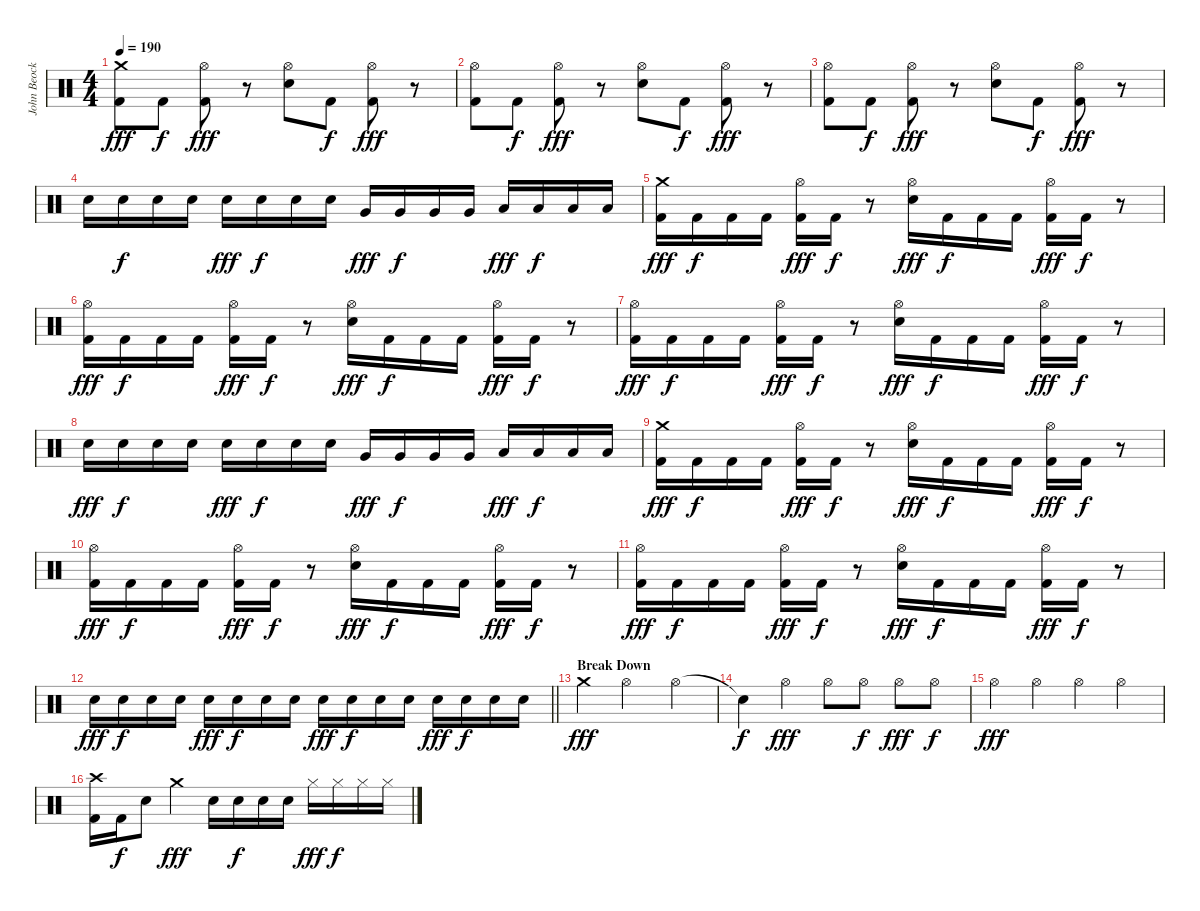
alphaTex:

\track ("John Beocklin (Drums)" "John Beock") {instrument percussion}
\staff {score}
\articulation defaults
\ts (4 4)
\tempo 190
\clef neutral
\ks c
("Crash medium (hit)" "Kick (hit) 2").8{dy fff} "Kick (hit) 2".8{dy f} ("Hi-Hat (open)" "Kick (hit) 2").8{dy fff} r.8 ("Hi-Hat (open)" "Snare (hit) 2").8 "Kick (hit) 2".8{dy f} ("Hi-Hat (open)" "Kick (hit) 2").8{dy fff} r.8 |
("Hi-Hat (open)" "Kick (hit) 2").8 "Kick (hit) 2".8{dy f} ("Hi-Hat (open)" "Kick (hit) 2").8{dy fff} r.8 ("Hi-Hat (open)" "Snare (hit) 2").8 "Kick (hit) 2".8{dy f} ("Hi-Hat (open)" "Kick (hit) 2").8{dy fff} r.8 |
("Hi-Hat (open)" "Kick (hit) 2").8 "Kick (hit) 2".8{dy f} ("Hi-Hat (open)" "Kick (hit) 2").8{dy fff} r.8 ("Hi-Hat (open)" "Snare (hit) 2").8 "Kick (hit) 2".8{dy f} ("Hi-Hat (open)" "Kick (hit) 2").8{dy fff} r.8 |
"Snare (hit) 2".16 "Snare (hit) 2".16{dy f} "Snare (hit) 2".16 "Snare (hit) 2".16 "Snare (hit) 2".16{dy fff} "Snare (hit) 2".16{dy f} "Snare (hit) 2".16 "Snare (hit) 2".16 "Very Low Tom (hit)".16{dy fff} "Very Low Tom (hit)".16{dy f} "Very Low Tom (hit)".16 "Very Low Tom (hit)".16 "Low Floor Tom (hit)".16{dy fff} "Low Floor Tom (hit)".16{dy f} "Low Floor Tom (hit)".16 "Low Floor Tom (hit)".16 |
("Crash medium (hit)" "Kick (hit) 2").16{dy fff} "Kick (hit) 2".16{dy f} "Kick (hit) 2".16 "Kick (hit) 2".16 ("Hi-Hat (open)" "Kick (hit) 2").16{dy fff} "Kick (hit) 2".16{dy f} r.8 ("Hi-Hat (open)" "Snare (hit) 2").16{dy fff} "Kick (hit) 2".16{dy f} "Kick (hit) 2".16 "Kick (hit) 2".16 ("Hi-Hat (open)" "Kick (hit) 2").16{dy fff} "Kick (hit) 2".16{dy f} r.8 |
("Hi-Hat (open)" "Kick (hit) 2").16{dy fff} "Kick (hit) 2".16{dy f} "Kick (hit) 2".16 "Kick (hit) 2".16 ("Hi-Hat (open)" "Kick (hit) 2").16{dy fff} "Kick (hit) 2".16{dy f} r.8 ("Hi-Hat (open)" "Snare (hit) 2").16{dy fff} "Kick (hit) 2".16{dy f} "Kick (hit) 2".16 "Kick (hit) 2".16 ("Hi-Hat (open)" "Kick (hit) 2").16{dy fff} "Kick (hit) 2".16{dy f} r.8 |
("Hi-Hat (open)" "Kick (hit) 2").16{dy fff} "Kick (hit) 2".16{dy f} "Kick (hit) 2".16 "Kick (hit) 2".16 ("Hi-Hat (open)" "Kick (hit) 2").16{dy fff} "Kick (hit) 2".16{dy f} r.8 ("Hi-Hat (open)" "Snare (hit) 2").16{dy fff} "Kick (hit) 2".16{dy f} "Kick (hit) 2".16 "Kick (hit) 2".16 ("Hi-Hat (open)" "Kick (hit) 2").16{dy fff} "Kick (hit) 2".16{dy f} r.8 |
"Snare (hit) 2".16{dy fff} "Snare (hit) 2".16{dy f} "Snare (hit) 2".16 "Snare (hit) 2".16 "Snare (hit) 2".16{dy fff} "Snare (hit) 2".16{dy f} "Snare (hit) 2".16 "Snare (hit) 2".16 "Very Low Tom (hit)".16{dy fff} "Very Low Tom (hit)".16{dy f} "Very Low Tom (hit)".16 "Very Low Tom (hit)".16 "Low Floor Tom (hit)".16{dy fff} "Low Floor Tom (hit)".16{dy f} "Low Floor Tom (hit)".16 "Low Floor Tom (hit)".16 |
("Crash medium (hit)" "Kick (hit) 2").16{dy fff} "Kick (hit) 2".16{dy f} "Kick (hit) 2".16 "Kick (hit) 2".16 ("Hi-Hat (open)" "Kick (hit) 2").16{dy fff} "Kick (hit) 2".16{dy f} r.8 ("Hi-Hat (open)" "Snare (hit) 2").16{dy fff} "Kick (hit) 2".16{dy f} "Kick (hit) 2".16 "Kick (hit) 2".16 ("Hi-Hat (open)" "Kick (hit) 2").16{dy fff} "Kick (hit) 2".16{dy f} r.8 |
("Hi-Hat (open)" "Kick (hit) 2").16{dy fff} "Kick (hit) 2".16{dy f} "Kick (hit) 2".16 "Kick (hit) 2".16 ("Hi-Hat (open)" "Kick (hit) 2").16{dy fff} "Kick (hit) 2".16{dy f} r.8 ("Hi-Hat (open)" "Snare (hit) 2").16{dy fff} "Kick (hit) 2".16{dy f} "Kick (hit) 2".16 "Kick (hit) 2".16 ("Hi-Hat (open)" "Kick (hit) 2").16{dy fff} "Kick (hit) 2".16{dy f} r.8 |
("Hi-Hat (open)" "Kick (hit) 2").16{dy fff} "Kick (hit) 2".16{dy f} "Kick (hit) 2".16 "Kick (hit) 2".16 ("Hi-Hat (open)" "Kick (hit) 2").16{dy fff} "Kick (hit) 2".16{dy f} r.8 ("Hi-Hat (open)" "Snare (hit) 2").16{dy fff} "Kick (hit) 2".16{dy f} "Kick (hit) 2".16 "Kick (hit) 2".16 ("Hi-Hat (open)" "Kick (hit) 2").16{dy fff} "Kick (hit) 2".16{dy f} r.8 |
\barLineRight lightlight "Snare (hit) 2".16{dy fff} "Snare (hit) 2".16{dy f} "Snare (hit) 2".16 "Snare (hit) 2".16 "Snare (hit) 2".16{dy fff} "Snare (hit) 2".16{dy f} "Snare (hit) 2".16 "Snare (hit) 2".16 "Snare (hit) 2".16{dy fff} "Snare (hit) 2".16{dy f} "Snare (hit) 2".16 "Snare (hit) 2".16 "Snare (hit) 2".16{dy fff} "Snare (hit) 2".16{dy f} "Snare (hit) 2".16 "Snare (hit) 2".16
|
\section ("" "Break Down")
"Crash medium (hit)".4{dy fff} "Hi-Hat (open)".2 "Hi-Hat (open)".4 |
"Snare (hit)"{t}.4{dy f} "Hi-Hat (open)".4{dy fff} "Hi-Hat (open)".8 "Hi-Hat (open)".8{dy f} "Hi-Hat (open)".8{dy fff} "Hi-Hat (open)".8{dy f} |
"Hi-Hat (open)".4{dy fff} "Hi-Hat (open)".4 "Hi-Hat (open)".4 "Hi-Hat (open)".4 |
("Crash high (hit)" "Kick (hit) 2").16 "Kick (hit) 2".16{dy f} "Snare (hit) 2".8 "Crash medium (hit)".4{dy fff} "Snare (hit) 2".16 "Snare (hit) 2".16{dy f} "Snare (hit) 2".16 "Snare (hit) 2".16 "Hi-Hat (closed)".16{dy fff} "Hi-Hat (closed)".16{dy f} "Hi-Hat (closed)".16 "Hi-Hat (closed)".16
